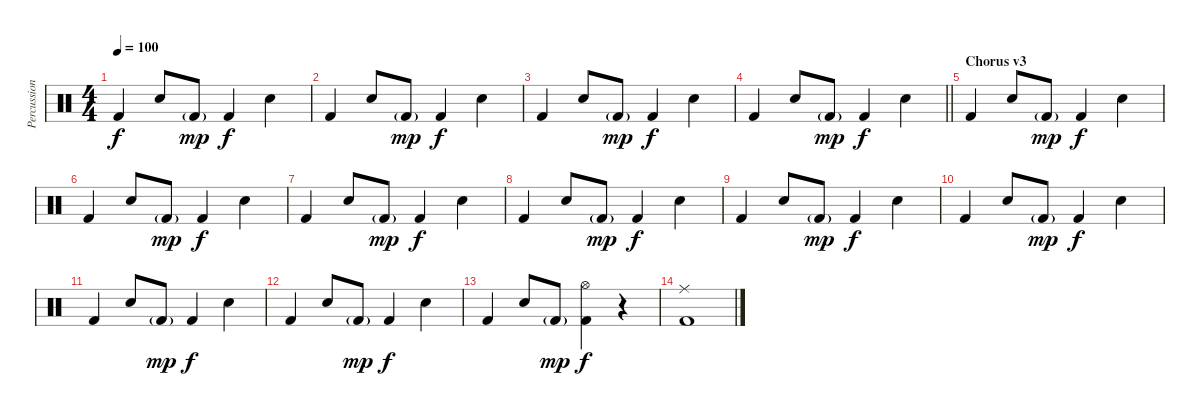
\track ("Percussion" "Percussion") {instrument percussion}
\staff {score}
\articulation defaults
\ts (4 4)
\tempo 100
\clef neutral
\ks c "Kick (hit) 2".4{dy f} "Snare (hit) 2".8 "Kick (hit) 2"{g}.8{dy mp} "Kick (hit) 2".4{dy f} "Snare (hit) 2".4
|
"Kick (hit) 2".4 "Snare (hit) 2".8 "Kick (hit) 2"{g}.8{dy mp} "Kick (hit) 2".4{dy f} "Snare (hit) 2".4 |
"Kick (hit) 2".4 "Snare (hit) 2".8 "Kick (hit) 2"{g}.8{dy mp} "Kick (hit) 2".4{dy f} "Snare (hit) 2".4 |
\barLineRight lightlight "Kick (hit) 2".4 "Snare (hit) 2".8 "Kick (hit) 2"{g}.8{dy mp} "Kick (hit) 2".4{dy f} "Snare (hit) 2".4
|
\section ("" "Chorus v3")
"Kick (hit) 2".4 "Snare (hit) 2".8 "Kick (hit) 2"{g}.8{dy mp} "Kick (hit) 2".4{dy f} "Snare (hit) 2".4 |
"Kick (hit) 2".4 "Snare (hit) 2".8 "Kick (hit) 2"{g}.8{dy mp} "Kick (hit) 2".4{dy f} "Snare (hit) 2".4 |
"Kick (hit) 2".4 "Snare (hit) 2".8 "Kick (hit) 2"{g}.8{dy mp} "Kick (hit) 2".4{dy f} "Snare (hit) 2".4 |
"Kick (hit) 2".4 "Snare (hit) 2".8 "Kick (hit) 2"{g}.8{dy mp} "Kick (hit) 2".4{dy f} "Snare (hit) 2".4 |
"Kick (hit) 2".4 "Snare (hit) 2".8 "Kick (hit) 2"{g}.8{dy mp} "Kick (hit) 2".4{dy f} "Snare (hit) 2".4 |
"Kick (hit) 2".4 "Snare (hit) 2".8 "Kick (hit) 2"{g}.8{dy mp} "Kick (hit) 2".4{dy f} "Snare (hit) 2".4 |
"Kick (hit) 2".4 "Snare (hit) 2".8 "Kick (hit) 2"{g}.8{dy mp} "Kick (hit) 2".4{dy f} "Snare (hit) 2".4 |
"Kick (hit) 2".4 "Snare (hit) 2".8 "Kick (hit) 2"{g}.8{dy mp} "Kick (hit) 2".4{dy f} "Snare (hit) 2".4 |
"Kick (hit) 2".4 "Snare (hit) 2".8 "Kick (hit) 2"{g}.8{dy mp} ("Hi-Hat (open)" "Kick (hit) 2").4{dy f} r.4 |
("Ride (middle)" "Kick (hit) 2").1
